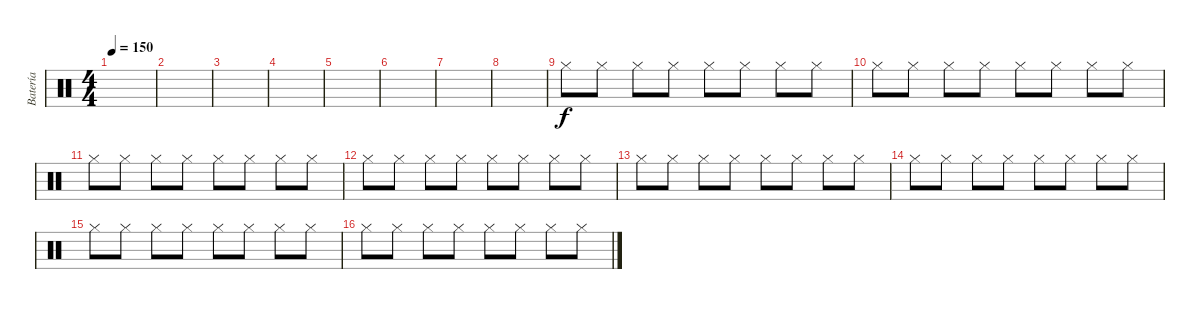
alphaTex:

\track ("Batería" "Batería") {instrument percussion}
\staff {score}
\articulation defaults
\ts (4 4)
\tempo 150
\clef neutral
\ks c
|
|
|
|
|
|
|
|
"Hi-Hat (closed)".8 "Hi-Hat (closed)".8 "Hi-Hat (closed)".8 "Hi-Hat (closed)".8 "Hi-Hat (closed)".8 "Hi-Hat (closed)".8 "Hi-Hat (closed)".8 "Hi-Hat (closed)".8 |
"Hi-Hat (closed)".8 "Hi-Hat (closed)".8 "Hi-Hat (closed)".8 "Hi-Hat (closed)".8 "Hi-Hat (closed)".8 "Hi-Hat (closed)".8 "Hi-Hat (closed)".8 "Hi-Hat (closed)".8 |
"Hi-Hat (closed)".8 "Hi-Hat (closed)".8 "Hi-Hat (closed)".8 "Hi-Hat (closed)".8 "Hi-Hat (closed)".8 "Hi-Hat (closed)".8 "Hi-Hat (closed)".8 "Hi-Hat (closed)".8 |
"Hi-Hat (closed)".8 "Hi-Hat (closed)".8 "Hi-Hat (closed)".8 "Hi-Hat (closed)".8 "Hi-Hat (closed)".8 "Hi-Hat (closed)".8 "Hi-Hat (closed)".8 "Hi-Hat (closed)".8 |
"Hi-Hat (closed)".8 "Hi-Hat (closed)".8 "Hi-Hat (closed)".8 "Hi-Hat (closed)".8 "Hi-Hat (closed)".8 "Hi-Hat (closed)".8 "Hi-Hat (closed)".8 "Hi-Hat (closed)".8 |
"Hi-Hat (closed)".8 "Hi-Hat (closed)".8 "Hi-Hat (closed)".8 "Hi-Hat (closed)".8 "Hi-Hat (closed)".8 "Hi-Hat (closed)".8 "Hi-Hat (closed)".8 "Hi-Hat (closed)".8 |
"Hi-Hat (closed)".8 "Hi-Hat (closed)".8 "Hi-Hat (closed)".8 "Hi-Hat (closed)".8 "Hi-Hat (closed)".8 "Hi-Hat (closed)".8 "Hi-Hat (closed)".8 "Hi-Hat (closed)".8 |
"Hi-Hat (closed)".8 "Hi-Hat (closed)".8 "Hi-Hat (closed)".8 "Hi-Hat (closed)".8 "Hi-Hat (closed)".8 "Hi-Hat (closed)".8 "Hi-Hat (closed)".8 "Hi-Hat (closed)".8
